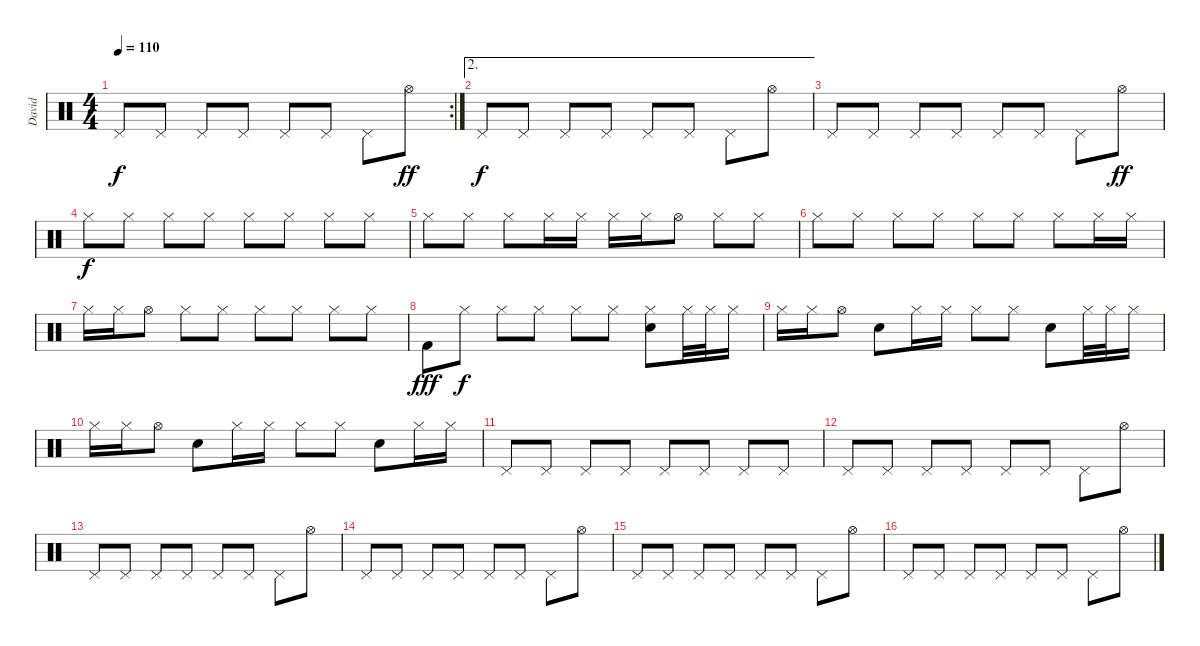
\track ("David" "David") {instrument percussion}
\staff {score}
\articulation defaults
\rc 2
\ts (4 4)
\tempo 110
\clef neutral
\ks c "Pedal Hi-Hat (hit)".8{dy f} "Pedal Hi-Hat (hit)".8 "Pedal Hi-Hat (hit)".8 "Pedal Hi-Hat (hit)".8 "Pedal Hi-Hat (hit)".8 "Pedal Hi-Hat (hit)".8 "Pedal Hi-Hat (hit)".8 "Hi-Hat (open)".8{dy ff}
|
\ae 2 "Pedal Hi-Hat (hit)".8{dy f} "Pedal Hi-Hat (hit)".8 "Pedal Hi-Hat (hit)".8 "Pedal Hi-Hat (hit)".8 "Pedal Hi-Hat (hit)".8 "Pedal Hi-Hat (hit)".8 "Pedal Hi-Hat (hit)".8 "Hi-Hat (open)".8
|
"Pedal Hi-Hat (hit)".8 "Pedal Hi-Hat (hit)".8 "Pedal Hi-Hat (hit)".8 "Pedal Hi-Hat (hit)".8 "Pedal Hi-Hat (hit)".8 "Pedal Hi-Hat (hit)".8 "Pedal Hi-Hat (hit)".8 "Hi-Hat (open)".8{dy ff} |
"Hi-Hat (closed)".8{dy f} "Hi-Hat (closed)".8 "Hi-Hat (closed)".8 "Hi-Hat (closed)".8 "Hi-Hat (closed)".8 "Hi-Hat (closed)".8 "Hi-Hat (closed)".8 "Hi-Hat (closed)".8 |
"Hi-Hat (closed)".8 "Hi-Hat (closed)".8 "Hi-Hat (closed)".8 "Hi-Hat (closed)".16 "Hi-Hat (closed)".16 "Hi-Hat (closed)".16 "Hi-Hat (closed)".16 "Hi-Hat (open)".8 "Hi-Hat (closed)".8 "Hi-Hat (closed)".8 |
"Hi-Hat (closed)".8 "Hi-Hat (closed)".8 "Hi-Hat (closed)".8 "Hi-Hat (closed)".8 "Hi-Hat (closed)".8 "Hi-Hat (closed)".8 "Hi-Hat (closed)".8 "Hi-Hat (closed)".16 "Hi-Hat (closed)".16 |
"Hi-Hat (closed)".16 "Hi-Hat (closed)".16 "Hi-Hat (open)".8 "Hi-Hat (closed)".8 "Hi-Hat (closed)".8 "Hi-Hat (closed)".8 "Hi-Hat (closed)".8 "Hi-Hat (closed)".8 "Hi-Hat (closed)".8 |
"Kick (hit) 2".8{dy fff} "Hi-Hat (closed)".8{dy f} "Hi-Hat (closed)".8 "Hi-Hat (closed)".8 "Hi-Hat (closed)".8 "Hi-Hat (closed)".8 ("Snare (hit) 2" "Hi-Hat (closed)").8 "Hi-Hat (closed)".32 "Hi-Hat (closed)".32 "Hi-Hat (closed)".16 |
"Hi-Hat (closed)".16 "Hi-Hat (closed)".16 "Hi-Hat (open)".8 "Snare (hit) 2".8 "Hi-Hat (closed)".16 "Hi-Hat (closed)".16 "Hi-Hat (closed)".8 "Hi-Hat (closed)".8 "Snare (hit) 2".8 "Hi-Hat (closed)".32 "Hi-Hat (closed)".32 "Hi-Hat (closed)".16 |
"Hi-Hat (closed)".16 "Hi-Hat (closed)".16 "Hi-Hat (open)".8 "Snare (hit) 2".8 "Hi-Hat (closed)".16 "Hi-Hat (closed)".16 "Hi-Hat (closed)".8 "Hi-Hat (closed)".8 "Snare (hit) 2".8 "Hi-Hat (closed)".16 "Hi-Hat (closed)".16 |
"Pedal Hi-Hat (hit)".8 "Pedal Hi-Hat (hit)".8 "Pedal Hi-Hat (hit)".8 "Pedal Hi-Hat (hit)".8 "Pedal Hi-Hat (hit)".8 "Pedal Hi-Hat (hit)".8 "Pedal Hi-Hat (hit)".8 "Pedal Hi-Hat (hit)".8 |
"Pedal Hi-Hat (hit)".8 "Pedal Hi-Hat (hit)".8 "Pedal Hi-Hat (hit)".8 "Pedal Hi-Hat (hit)".8 "Pedal Hi-Hat (hit)".8 "Pedal Hi-Hat (hit)".8 "Pedal Hi-Hat (hit)".8 "Hi-Hat (open)".8 |
"Pedal Hi-Hat (hit)".8 "Pedal Hi-Hat (hit)".8 "Pedal Hi-Hat (hit)".8 "Pedal Hi-Hat (hit)".8 "Pedal Hi-Hat (hit)".8 "Pedal Hi-Hat (hit)".8 "Pedal Hi-Hat (hit)".8 "Hi-Hat (open)".8 |
"Pedal Hi-Hat (hit)".8 "Pedal Hi-Hat (hit)".8 "Pedal Hi-Hat (hit)".8 "Pedal Hi-Hat (hit)".8 "Pedal Hi-Hat (hit)".8 "Pedal Hi-Hat (hit)".8 "Pedal Hi-Hat (hit)".8 "Hi-Hat (open)".8 |
"Pedal Hi-Hat (hit)".8 "Pedal Hi-Hat (hit)".8 "Pedal Hi-Hat (hit)".8 "Pedal Hi-Hat (hit)".8 "Pedal Hi-Hat (hit)".8 "Pedal Hi-Hat (hit)".8 "Pedal Hi-Hat (hit)".8 "Hi-Hat (open)".8 |
"Pedal Hi-Hat (hit)".8 "Pedal Hi-Hat (hit)".8 "Pedal Hi-Hat (hit)".8 "Pedal Hi-Hat (hit)".8 "Pedal Hi-Hat (hit)".8 "Pedal Hi-Hat (hit)".8 "Pedal Hi-Hat (hit)".8 "Hi-Hat (open)".8
